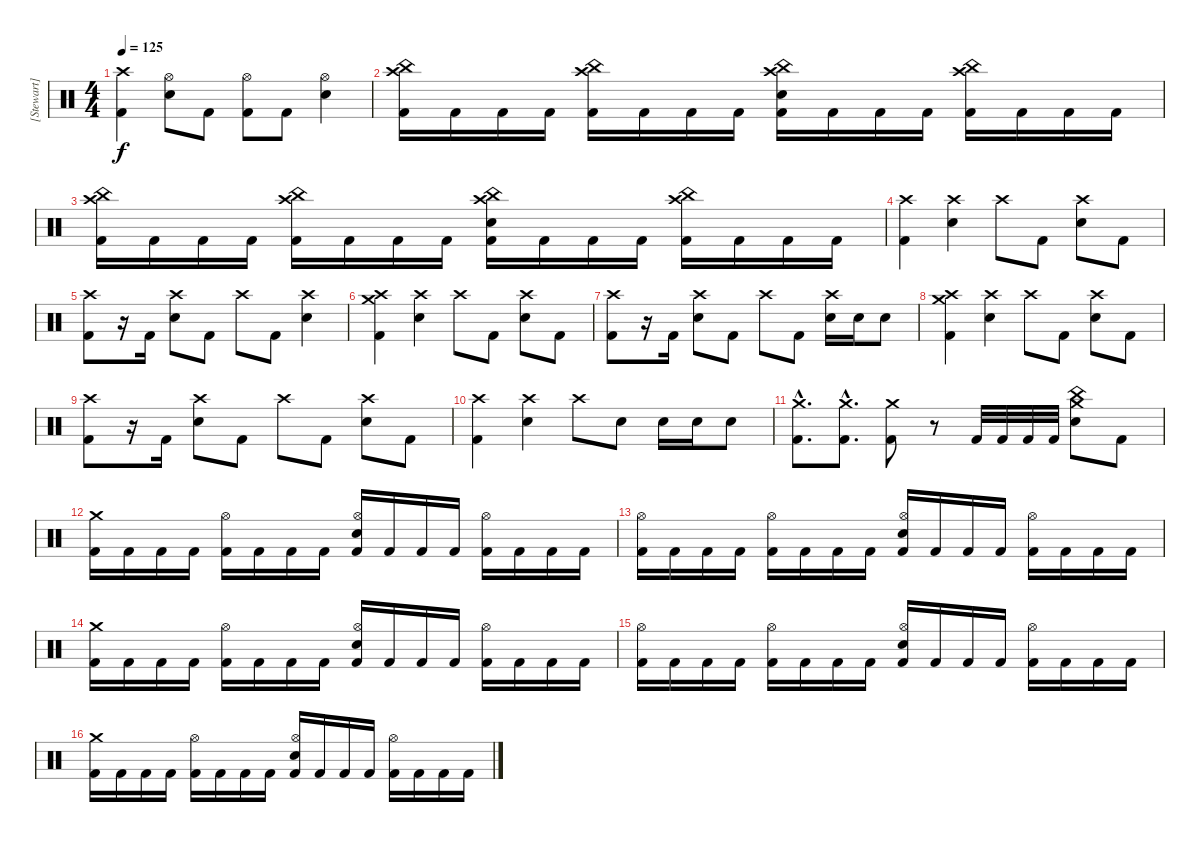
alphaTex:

\track ("[Stewart]" "[Stewart]") {instrument percussion}
\staff {score}
\articulation defaults
\ts (4 4)
\tempo 125
\clef neutral
\ks c
("Crash high (hit)" "Kick (hit) 2").4{dy f} ("Hi-Hat (open)" "Electric Snare (hit)").8 "Kick (hit) 2".8 ("Hi-Hat (open)" "Kick (hit) 2").8 "Kick (hit) 2".8 ("Hi-Hat (open)" "Electric Snare (hit)").4 |
("China (hit)" "Crash high (hit)" "Kick (hit) 2").16 "Kick (hit) 2".16 "Kick (hit) 2".16 "Kick (hit) 2".16 ("China (hit)" "Crash high (hit)" "Kick (hit) 2").16 "Kick (hit) 2".16 "Kick (hit) 2".16 "Kick (hit) 2".16 ("China (hit)" "Crash high (hit)" "Electric Snare (hit)" "Kick (hit) 2").16 "Kick (hit) 2".16 "Kick (hit) 2".16 "Kick (hit) 2".16 ("China (hit)" "Crash high (hit)" "Kick (hit) 2").16 "Kick (hit) 2".16 "Kick (hit) 2".16 "Kick (hit) 2".16 |
("China (hit)" "Crash high (hit)" "Kick (hit) 2").16 "Kick (hit) 2".16 "Kick (hit) 2".16 "Kick (hit) 2".16 ("China (hit)" "Crash high (hit)" "Kick (hit) 2").16 "Kick (hit) 2".16 "Kick (hit) 2".16 "Kick (hit) 2".16 ("China (hit)" "Crash high (hit)" "Electric Snare (hit)" "Kick (hit) 2").16 "Kick (hit) 2".16 "Kick (hit) 2".16 "Kick (hit) 2".16 ("China (hit)" "Crash high (hit)" "Kick (hit) 2").16 "Kick (hit) 2".16 "Kick (hit) 2".16 "Kick (hit) 2".16 |
("Crash high (hit)" "Kick (hit) 2").4 ("Crash high (hit)" "Electric Snare (hit)").4 "Crash high (hit)".8 "Kick (hit) 2".8 ("Crash high (hit)" "Electric Snare (hit)").8 "Kick (hit) 2".8 |
("Crash high (hit)" "Kick (hit) 2").8 r.16 "Kick (hit) 2".16 ("Crash high (hit)" "Electric Snare (hit)").8 "Kick (hit) 2".8 "Crash high (hit)".8 "Kick (hit) 2".8 ("Crash high (hit)" "Electric Snare (hit)").4 |
("Crash high (hit)" "Crash medium (hit)" "Kick (hit) 2").4 ("Crash high (hit)" "Electric Snare (hit)").4 "Crash high (hit)".8 "Kick (hit) 2".8 ("Crash high (hit)" "Electric Snare (hit)").8 "Kick (hit) 2".8 |
("Crash high (hit)" "Kick (hit) 2").8 r.16 "Kick (hit) 2".16 ("Crash high (hit)" "Electric Snare (hit)").8 "Kick (hit) 2".8 "Crash high (hit)".8 "Kick (hit) 2".8 ("Crash high (hit)" "Electric Snare (hit)").16 "Electric Snare (hit)".16 "Electric Snare (hit)".8 |
("Crash high (hit)" "Crash medium (hit)" "Kick (hit) 2").4 ("Crash high (hit)" "Electric Snare (hit)").4 "Crash high (hit)".8 "Kick (hit) 2".8 ("Crash high (hit)" "Electric Snare (hit)").8 "Kick (hit) 2".8 |
("Crash high (hit)" "Kick (hit) 2").8 r.16 "Kick (hit) 2".16 ("Crash high (hit)" "Electric Snare (hit)").8 "Kick (hit) 2".8 "Crash high (hit)".8 "Kick (hit) 2".8 ("Crash high (hit)" "Electric Snare (hit)").8 "Kick (hit) 2".8 |
("Crash high (hit)" "Kick (hit) 2").4 ("Crash high (hit)" "Electric Snare (hit)").4 "Crash high (hit)".8 "Electric Snare (hit)".8 "Electric Snare (hit)".16 "Electric Snare (hit)".16 "Electric Snare (hit)".8 |
("Crash medium (hit)"{hac} "Kick (hit) 2"{hac}).8{d} ("Crash medium (hit)"{hac} "Kick (hit) 2"{hac}).8{d} ("Crash medium (hit)" "Kick (hit) 2").8 r.8 "Kick (hit) 2".32 "Kick (hit) 2".32 "Kick (hit) 2".32 "Kick (hit) 2".32 ("Crash medium (hit)" "China (hit)" "Electric Snare (hit)").8 "Kick (hit) 2".8 |
("Crash medium (hit)" "Kick (hit) 2").16 "Kick (hit) 2".16 "Kick (hit) 2".16 "Kick (hit) 2".16 ("Hi-Hat (open)" "Kick (hit) 2").16 "Kick (hit) 2".16 "Kick (hit) 2".16 "Kick (hit) 2".16 ("Hi-Hat (open)" "Electric Snare (hit)" "Kick (hit) 2").16 "Kick (hit) 2".16 "Kick (hit) 2".16 "Kick (hit) 2".16 ("Hi-Hat (open)" "Kick (hit) 2").16 "Kick (hit) 2".16 "Kick (hit) 2".16 "Kick (hit) 2".16 |
("Hi-Hat (open)" "Kick (hit) 2").16 "Kick (hit) 2".16 "Kick (hit) 2".16 "Kick (hit) 2".16 ("Hi-Hat (open)" "Kick (hit) 2").16 "Kick (hit) 2".16 "Kick (hit) 2".16 "Kick (hit) 2".16 ("Hi-Hat (open)" "Electric Snare (hit)" "Kick (hit) 2").16 "Kick (hit) 2".16 "Kick (hit) 2".16 "Kick (hit) 2".16 ("Hi-Hat (open)" "Kick (hit) 2").16 "Kick (hit) 2".16 "Kick (hit) 2".16 "Kick (hit) 2".16 |
("Crash medium (hit)" "Kick (hit) 2").16 "Kick (hit) 2".16 "Kick (hit) 2".16 "Kick (hit) 2".16 ("Hi-Hat (open)" "Kick (hit) 2").16 "Kick (hit) 2".16 "Kick (hit) 2".16 "Kick (hit) 2".16 ("Hi-Hat (open)" "Electric Snare (hit)" "Kick (hit) 2").16 "Kick (hit) 2".16 "Kick (hit) 2".16 "Kick (hit) 2".16 ("Hi-Hat (open)" "Kick (hit) 2").16 "Kick (hit) 2".16 "Kick (hit) 2".16 "Kick (hit) 2".16 |
("Hi-Hat (open)" "Kick (hit) 2").16 "Kick (hit) 2".16 "Kick (hit) 2".16 "Kick (hit) 2".16 ("Hi-Hat (open)" "Kick (hit) 2").16 "Kick (hit) 2".16 "Kick (hit) 2".16 "Kick (hit) 2".16 ("Hi-Hat (open)" "Electric Snare (hit)" "Kick (hit) 2").16 "Kick (hit) 2".16 "Kick (hit) 2".16 "Kick (hit) 2".16 ("Hi-Hat (open)" "Kick (hit) 2").16 "Kick (hit) 2".16 "Kick (hit) 2".16 "Kick (hit) 2".16 |
("Crash medium (hit)" "Kick (hit) 2").16 "Kick (hit) 2".16 "Kick (hit) 2".16 "Kick (hit) 2".16 ("Hi-Hat (open)" "Kick (hit) 2").16 "Kick (hit) 2".16 "Kick (hit) 2".16 "Kick (hit) 2".16 ("Hi-Hat (open)" "Electric Snare (hit)" "Kick (hit) 2").16 "Kick (hit) 2".16 "Kick (hit) 2".16 "Kick (hit) 2".16 ("Hi-Hat (open)" "Kick (hit) 2").16 "Kick (hit) 2".16 "Kick (hit) 2".16 "Kick (hit) 2".16
